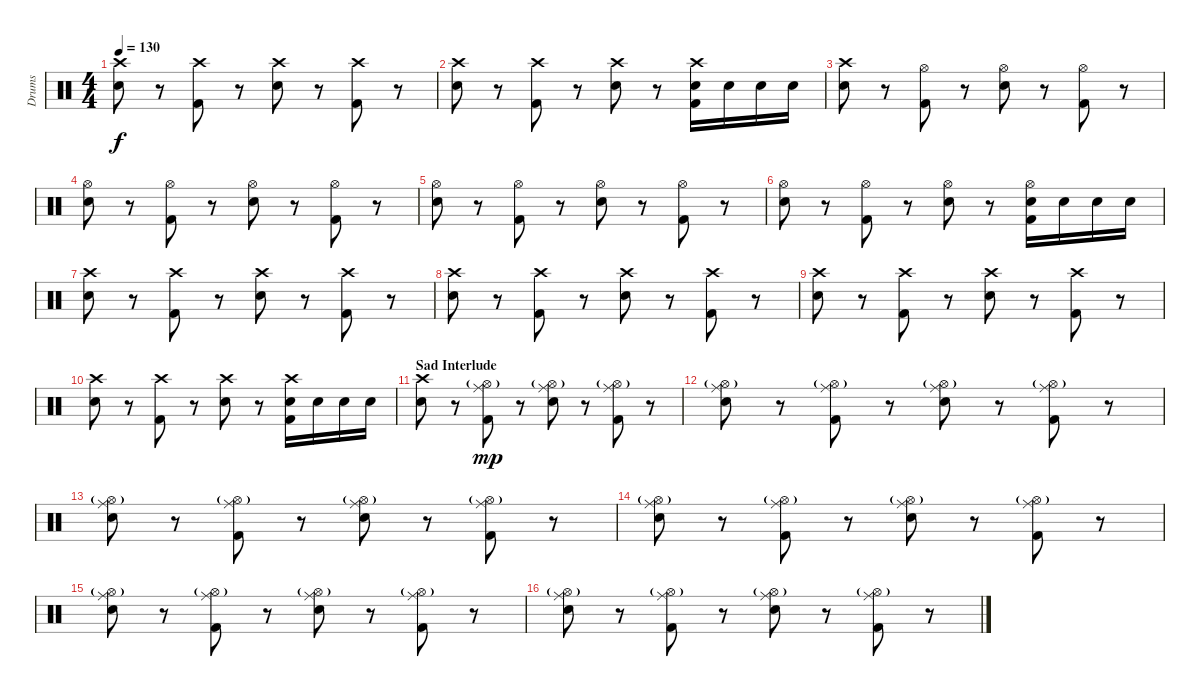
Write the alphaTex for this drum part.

\track ("Drums" "Drums") {instrument percussion}
\staff {score}
\articulation defaults
\ts (4 4)
\tempo 130
\clef neutral
\ks c
("Crash high (hit)" "Electric Snare (hit)").8{dy f} r.8 ("Crash high (hit)" "Kick (hit) 2").8 r.8 ("Crash high (hit)" "Electric Snare (hit)").8 r.8 ("Crash high (hit)" "Kick (hit) 2").8 r.8 |
("Crash high (hit)" "Electric Snare (hit)").8 r.8 ("Crash high (hit)" "Kick (hit) 2").8 r.8 ("Crash high (hit)" "Electric Snare (hit)").8 r.8 ("Crash high (hit)" "Electric Snare (hit)" "Kick (hit) 2").16 "Electric Snare (hit)".16 "Electric Snare (hit)".16 "Electric Snare (hit)".16 |
("Crash high (hit)" "Electric Snare (hit)").8 r.8 ("Hi-Hat (open)" "Kick (hit) 2").8 r.8 ("Hi-Hat (open)" "Electric Snare (hit)").8 r.8 ("Hi-Hat (open)" "Kick (hit) 2").8 r.8 |
("Hi-Hat (open)" "Electric Snare (hit)").8 r.8 ("Hi-Hat (open)" "Kick (hit) 2").8 r.8 ("Hi-Hat (open)" "Electric Snare (hit)").8 r.8 ("Hi-Hat (open)" "Kick (hit) 2").8 r.8 |
("Hi-Hat (open)" "Electric Snare (hit)").8 r.8 ("Hi-Hat (open)" "Kick (hit) 2").8 r.8 ("Hi-Hat (open)" "Electric Snare (hit)").8 r.8 ("Hi-Hat (open)" "Kick (hit) 2").8 r.8 |
("Hi-Hat (open)" "Electric Snare (hit)").8 r.8 ("Hi-Hat (open)" "Kick (hit) 2").8 r.8 ("Hi-Hat (open)" "Electric Snare (hit)").8 r.8 ("Hi-Hat (open)" "Electric Snare (hit)" "Kick (hit) 2").16 "Electric Snare (hit)".16 "Electric Snare (hit)".16 "Electric Snare (hit)".16 |
("Crash high (hit)" "Electric Snare (hit)").8 r.8 ("Crash high (hit)" "Kick (hit) 2").8 r.8 ("Crash high (hit)" "Electric Snare (hit)").8 r.8 ("Crash high (hit)" "Kick (hit) 2").8 r.8 |
("Crash high (hit)" "Electric Snare (hit)").8 r.8 ("Crash high (hit)" "Kick (hit) 2").8 r.8 ("Crash high (hit)" "Electric Snare (hit)").8 r.8 ("Crash high (hit)" "Kick (hit) 2").8 r.8 |
("Crash high (hit)" "Electric Snare (hit)").8 r.8 ("Crash high (hit)" "Kick (hit) 2").8 r.8 ("Crash high (hit)" "Electric Snare (hit)").8 r.8 ("Crash high (hit)" "Kick (hit) 2").8 r.8 |
("Crash high (hit)" "Electric Snare (hit)").8 r.8 ("Crash high (hit)" "Kick (hit) 2").8 r.8 ("Crash high (hit)" "Electric Snare (hit)").8 r.8 ("Crash high (hit)" "Electric Snare (hit)" "Kick (hit) 2").16 "Electric Snare (hit)".16 "Electric Snare (hit)".16 "Electric Snare (hit)".16 |
\section ("" "Sad Interlude")
("Crash high (hit)" "Electric Snare (hit)").8 r.8 ("Ride (middle)" "Hi-Hat (open)"{g} "Kick (hit) 2").8{dy mp} r.8 ("Ride (middle)" "Hi-Hat (open)"{g} "Electric Snare (hit)").8 r.8 ("Ride (middle)" "Hi-Hat (open)"{g} "Kick (hit) 2").8 r.8 |
("Ride (middle)" "Hi-Hat (open)"{g} "Electric Snare (hit)").8 r.8 ("Ride (middle)" "Hi-Hat (open)"{g} "Kick (hit) 2").8 r.8 ("Ride (middle)" "Hi-Hat (open)"{g} "Electric Snare (hit)").8 r.8 ("Ride (middle)" "Hi-Hat (open)"{g} "Kick (hit) 2").8 r.8 |
("Ride (middle)" "Hi-Hat (open)"{g} "Electric Snare (hit)").8 r.8 ("Ride (middle)" "Hi-Hat (open)"{g} "Kick (hit) 2").8 r.8 ("Ride (middle)" "Hi-Hat (open)"{g} "Electric Snare (hit)").8 r.8 ("Ride (middle)" "Hi-Hat (open)"{g} "Kick (hit) 2").8 r.8 |
("Ride (middle)" "Hi-Hat (open)"{g} "Electric Snare (hit)").8 r.8 ("Ride (middle)" "Hi-Hat (open)"{g} "Kick (hit) 2").8 r.8 ("Ride (middle)" "Hi-Hat (open)"{g} "Electric Snare (hit)").8 r.8 ("Ride (middle)" "Hi-Hat (open)"{g} "Kick (hit) 2").8 r.8 |
("Ride (middle)" "Hi-Hat (open)"{g} "Electric Snare (hit)").8 r.8 ("Ride (middle)" "Hi-Hat (open)"{g} "Kick (hit) 2").8 r.8 ("Ride (middle)" "Hi-Hat (open)"{g} "Electric Snare (hit)").8 r.8 ("Ride (middle)" "Hi-Hat (open)"{g} "Kick (hit) 2").8 r.8 |
("Ride (middle)" "Hi-Hat (open)"{g} "Electric Snare (hit)").8 r.8 ("Ride (middle)" "Hi-Hat (open)"{g} "Kick (hit) 2").8 r.8 ("Ride (middle)" "Hi-Hat (open)"{g} "Electric Snare (hit)").8 r.8 ("Ride (middle)" "Hi-Hat (open)"{g} "Kick (hit) 2").8 r.8
